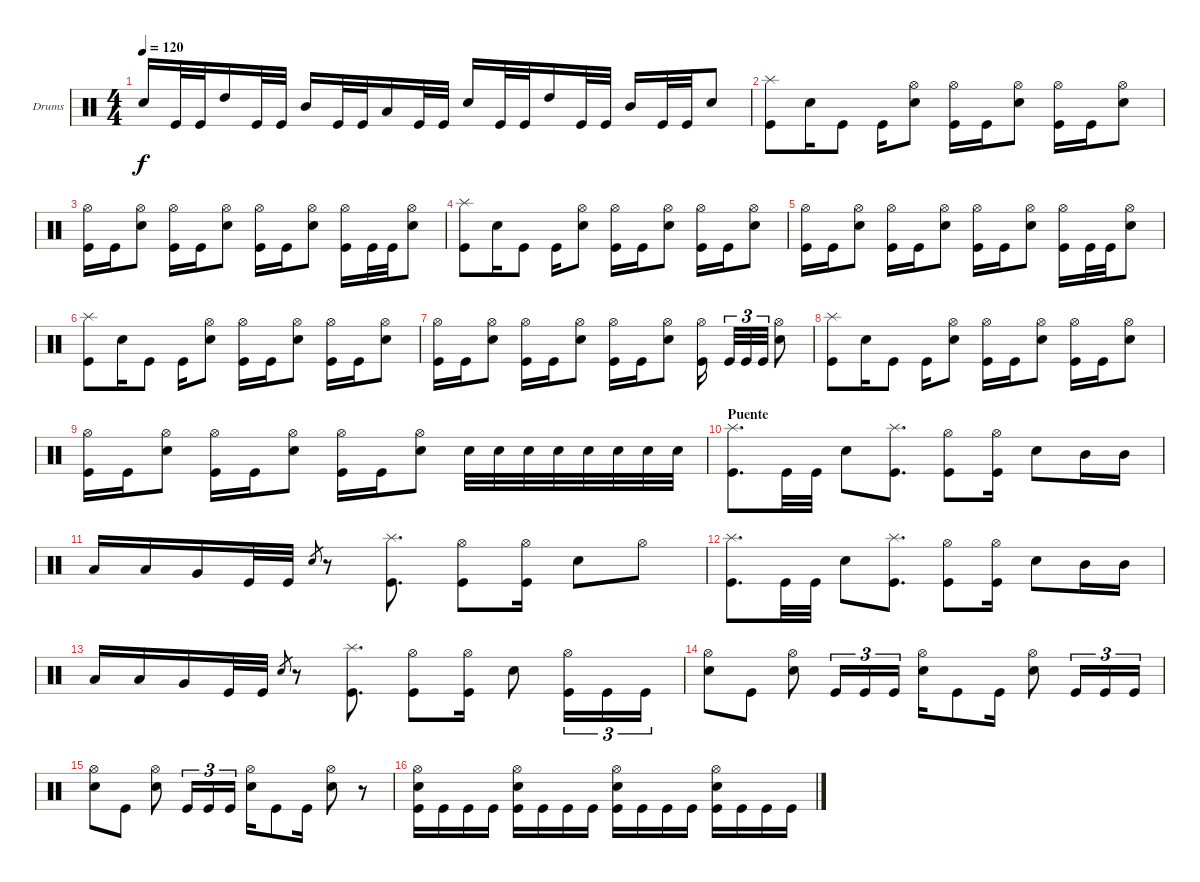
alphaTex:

\bracketExtendMode groupsimilarinstruments
\firstSystemTrackNameOrientation horizontal
\otherSystemsTrackNameOrientation horizontal
\track ("Drumkit" "Drums") {instrument percussion}
\staff {score}
\articulation defaults
\ts (4 4)
\tempo 120
\clef neutral
\ks c "Snare (hit) 2".16{dy f} "Kick (hit)".32 "Kick (hit)".32 "High Tom (hit)".16 "Kick (hit)".32 "Kick (hit)".32 "Mid Tom (hit)".16 "Kick (hit)".32 "Kick (hit)".32 "Low Tom (hit)".16 "Kick (hit)".32 "Kick (hit)".32 "Snare (hit) 2".16 "Kick (hit)".32 "Kick (hit)".32 "High Tom (hit)".16 "Kick (hit)".32 "Kick (hit)".32 "Mid Tom (hit)".16 "Kick (hit)".32 "Kick (hit)".32 "Snare (hit) 2".8
|
("Kick (hit)" "Splash (hit)").8 "Snare (hit) 2".16 "Kick (hit)".8 "Kick (hit)".16 ("Snare (hit) 2" "Hi-Hat (open)").8 ("Kick (hit)" "Hi-Hat (open)").16 "Kick (hit)".16 ("Snare (hit) 2" "Hi-Hat (open)").8 ("Kick (hit)" "Hi-Hat (open)").16 "Kick (hit)".16 ("Snare (hit) 2" "Hi-Hat (open)").8 |
("Kick (hit)" "Hi-Hat (open)").16 "Kick (hit)".16 ("Snare (hit) 2" "Hi-Hat (open)").8 ("Kick (hit)" "Hi-Hat (open)").16 "Kick (hit)".16 ("Snare (hit) 2" "Hi-Hat (open)").8 ("Kick (hit)" "Hi-Hat (open)").16 "Kick (hit)".16 ("Snare (hit) 2" "Hi-Hat (open)").8 ("Kick (hit)" "Hi-Hat (open)").16 "Kick (hit)".32 "Kick (hit)".32 ("Snare (hit) 2" "Hi-Hat (open)").8 |
("Kick (hit)" "Splash (hit)").8 "Snare (hit) 2".16 "Kick (hit)".8 "Kick (hit)".16 ("Snare (hit) 2" "Hi-Hat (open)").8 ("Kick (hit)" "Hi-Hat (open)").16 "Kick (hit)".16 ("Snare (hit) 2" "Hi-Hat (open)").8 ("Kick (hit)" "Hi-Hat (open)").16 "Kick (hit)".16 ("Snare (hit) 2" "Hi-Hat (open)").8 |
("Kick (hit)" "Hi-Hat (open)").16 "Kick (hit)".16 ("Snare (hit) 2" "Hi-Hat (open)").8 ("Kick (hit)" "Hi-Hat (open)").16 "Kick (hit)".16 ("Snare (hit) 2" "Hi-Hat (open)").8 ("Kick (hit)" "Hi-Hat (open)").16 "Kick (hit)".16 ("Snare (hit) 2" "Hi-Hat (open)").8 ("Kick (hit)" "Hi-Hat (open)").16 "Kick (hit)".32 "Kick (hit)".32 ("Snare (hit) 2" "Hi-Hat (open)").8 |
("Kick (hit)" "Splash (hit)").8 "Snare (hit) 2".16 "Kick (hit)".8 "Kick (hit)".16 ("Snare (hit) 2" "Hi-Hat (open)").8 ("Kick (hit)" "Hi-Hat (open)").16 "Kick (hit)".16 ("Snare (hit) 2" "Hi-Hat (open)").8 ("Kick (hit)" "Hi-Hat (open)").16 "Kick (hit)".16 ("Snare (hit) 2" "Hi-Hat (open)").8 |
("Kick (hit)" "Hi-Hat (open)").16 "Kick (hit)".16 ("Snare (hit) 2" "Hi-Hat (open)").8 ("Kick (hit)" "Hi-Hat (open)").16 "Kick (hit)".16 ("Snare (hit) 2" "Hi-Hat (open)").8 ("Kick (hit)" "Hi-Hat (open)").16 "Kick (hit)".16 ("Snare (hit) 2" "Hi-Hat (open)").8 ("Kick (hit)" "Hi-Hat (open)").16 "Kick (hit)".32{tu (3 2)} "Kick (hit)".32{tu (3 2)} "Kick (hit)".32{tu (3 2)} ("Snare (hit) 2" "Hi-Hat (open)").8 |
("Kick (hit)" "Splash (hit)").8 "Snare (hit) 2".16 "Kick (hit)".8 "Kick (hit)".16 ("Snare (hit) 2" "Hi-Hat (open)").8 ("Kick (hit)" "Hi-Hat (open)").16 "Kick (hit)".16 ("Snare (hit) 2" "Hi-Hat (open)").8 ("Kick (hit)" "Hi-Hat (open)").16 "Kick (hit)".16 ("Snare (hit) 2" "Hi-Hat (open)").8 |
("Kick (hit)" "Hi-Hat (open)").16 "Kick (hit)".16 ("Snare (hit) 2" "Hi-Hat (open)").8 ("Kick (hit)" "Hi-Hat (open)").16 "Kick (hit)".16 ("Snare (hit) 2" "Hi-Hat (open)").8 ("Kick (hit)" "Hi-Hat (open)").16 "Kick (hit)".16 ("Snare (hit) 2" "Hi-Hat (open)").8 "Snare (hit) 2".32 "Snare (hit) 2".32 "Snare (hit) 2".32 "Snare (hit) 2".32 "Snare (hit) 2".32 "Snare (hit) 2".32 "Snare (hit) 2".32 "Snare (hit) 2".32 |
\section ("" "Puente")
("Kick (hit)" "Splash (hit)").8{d} "Kick (hit)".32 "Kick (hit)".32 "Snare (hit) 2".8 ("Kick (hit)" "Splash (hit)").8{d} ("Kick (hit)" "Hi-Hat (open)").8 ("Kick (hit)" "Hi-Hat (open)").16 "Snare (hit) 2".8 "Mid Tom (hit)".16 "Mid Tom (hit)".16 |
"Low Tom (hit)".16 "Low Tom (hit)".16 "Very Low Tom (hit)".16 "Kick (hit)".32 "Kick (hit)".32 "Snare (hit) 2".8{gr} r.8 ("Kick (hit)" "Splash (hit)").8{d} ("Kick (hit)" "Hi-Hat (open)").8 ("Kick (hit)" "Hi-Hat (open)").16 "Snare (hit) 2".8 "Hi-Hat (open)".8 |
("Kick (hit)" "Splash (hit)").8{d} "Kick (hit)".32 "Kick (hit)".32 "Snare (hit) 2".8 ("Kick (hit)" "Splash (hit)").8{d} ("Kick (hit)" "Hi-Hat (open)").8 ("Kick (hit)" "Hi-Hat (open)").16 "Snare (hit) 2".8 "Mid Tom (hit)".16 "Mid Tom (hit)".16 |
"Low Tom (hit)".16 "Low Tom (hit)".16 "Very Low Tom (hit)".16 "Kick (hit)".32 "Kick (hit)".32 "Snare (hit) 2".8{gr} r.8 ("Kick (hit)" "Splash (hit)").8{d} ("Kick (hit)" "Hi-Hat (open)").8 ("Kick (hit)" "Hi-Hat (open)").16 "Snare (hit) 2".8 ("Hi-Hat (open)" "Kick (hit)").16{tu (3 2)} "Kick (hit)".16{tu (3 2)} "Kick (hit)".16{tu (3 2)} |
("Snare (hit) 2" "Hi-Hat (open)").8 "Kick (hit)".8 ("Snare (hit) 2" "Hi-Hat (open)").8 "Kick (hit)".16{tu (3 2)} "Kick (hit)".16{tu (3 2)} "Kick (hit)".16{tu (3 2)} ("Snare (hit) 2" "Hi-Hat (open)").16 "Kick (hit)".8 "Kick (hit)".16 ("Snare (hit) 2" "Hi-Hat (open)").8 "Kick (hit)".16{tu (3 2)} "Kick (hit)".16{tu (3 2)} "Kick (hit)".16{tu (3 2)} |
("Snare (hit) 2" "Hi-Hat (open)").8 "Kick (hit)".8 ("Snare (hit) 2" "Hi-Hat (open)").8 "Kick (hit)".16{tu (3 2)} "Kick (hit)".16{tu (3 2)} "Kick (hit)".16{tu (3 2)} ("Snare (hit) 2" "Hi-Hat (open)").16 "Kick (hit)".8 "Kick (hit)".16 ("Snare (hit) 2" "Hi-Hat (open)").8 r.8 |
("Kick (hit)" "Snare (hit) 2" "Hi-Hat (open)").16 "Kick (hit)".16 "Kick (hit)".16 "Kick (hit)".16 ("Kick (hit)" "Snare (hit) 2" "Hi-Hat (open)").16 "Kick (hit)".16 "Kick (hit)".16 "Kick (hit)".16 ("Kick (hit)" "Snare (hit) 2" "Hi-Hat (open)").16 "Kick (hit)".16 "Kick (hit)".16 "Kick (hit)".16 ("Kick (hit)" "Snare (hit) 2" "Hi-Hat (open)").16 "Kick (hit)".16 "Kick (hit)".16 "Kick (hit)".16
